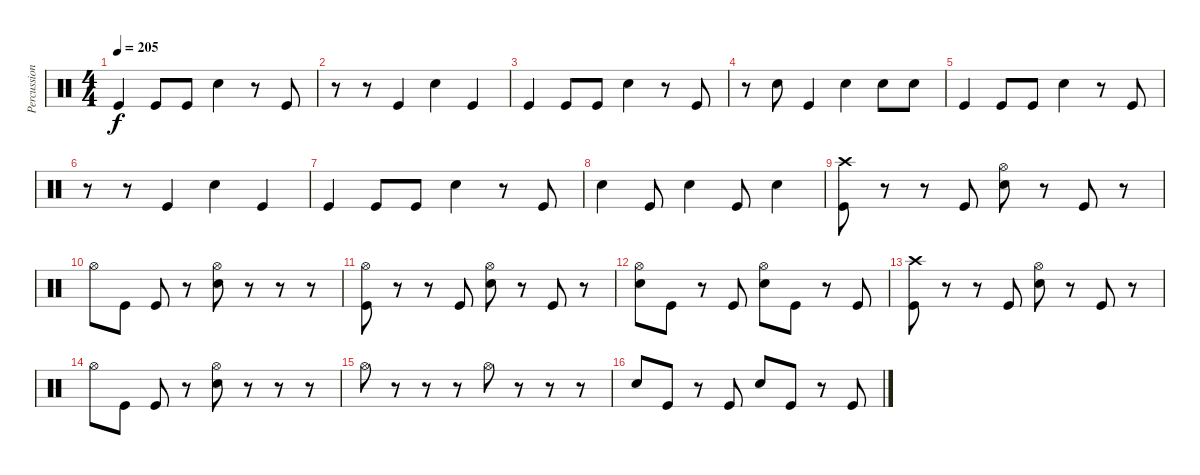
\track ("Percussion" "Percussion") {instrument percussion}
\staff {score}
\articulation defaults
\ts (4 4)
\tempo 205
\clef neutral
\ks c "Kick (hit)".4{dy f} "Kick (hit)".8 "Kick (hit)".8 "Snare (hit) 2".4
r.8 "Kick (hit)".8 |
r.8 r.8 "Kick (hit)".4 "Snare (hit) 2".4 "Kick (hit)".4 |
"Kick (hit)".4 "Kick (hit)".8 "Kick (hit)".8 "Snare (hit) 2".4 r.8 "Kick (hit)".8 |
r.8 "Snare (hit) 2".8 "Kick (hit)".4 "Snare (hit) 2".4 "Snare (hit) 2".8 "Snare (hit) 2".8 |
"Kick (hit)".4 "Kick (hit)".8 "Kick (hit)".8 "Snare (hit) 2".4 r.8 "Kick (hit)".8 |
r.8 r.8 "Kick (hit)".4 "Snare (hit) 2".4 "Kick (hit)".4 |
"Kick (hit)".4 "Kick (hit)".8 "Kick (hit)".8 "Snare (hit) 2".4 r.8 "Kick (hit)".8 |
"Snare (hit) 2".4 "Kick (hit)".8 "Snare (hit) 2".4 "Kick (hit)".8 "Snare (hit) 2".4 |
("Kick (hit)" "Crash high (hit)").8 r.8 r.8 "Kick (hit)".8 ("Snare (hit) 2" "Hi-Hat (open)").8 r.8 "Kick (hit)".8 r.8 |
"Hi-Hat (open)".8 "Kick (hit)".8 "Kick (hit)".8 r.8 ("Snare (hit) 2" "Hi-Hat (open)").8 r.8 r.8 r.8 |
("Kick (hit)" "Hi-Hat (open)").8 r.8 r.8 "Kick (hit)".8 ("Snare (hit) 2" "Hi-Hat (open)").8 r.8 "Kick (hit)".8 r.8 |
("Snare (hit) 2" "Hi-Hat (open)").8 "Kick (hit)".8 r.8 "Kick (hit)".8 ("Snare (hit) 2" "Hi-Hat (open)").8 "Kick (hit)".8 r.8 "Kick (hit)".8 |
("Kick (hit)" "Crash high (hit)").8 r.8 r.8 "Kick (hit)".8 ("Snare (hit) 2" "Hi-Hat (open)").8 r.8 "Kick (hit)".8 r.8 |
"Hi-Hat (open)".8 "Kick (hit)".8 "Kick (hit)".8 r.8 ("Snare (hit) 2" "Hi-Hat (open)").8 r.8 r.8 r.8 |
"Hi-Hat (open)".8 r.8 r.8 r.8 "Hi-Hat (open)".8 r.8 r.8 r.8 |
"Snare (hit) 2".8 "Kick (hit)".8 r.8 "Kick (hit)".8 "Snare (hit) 2".8 "Kick (hit)".8 r.8 "Kick (hit)".8
